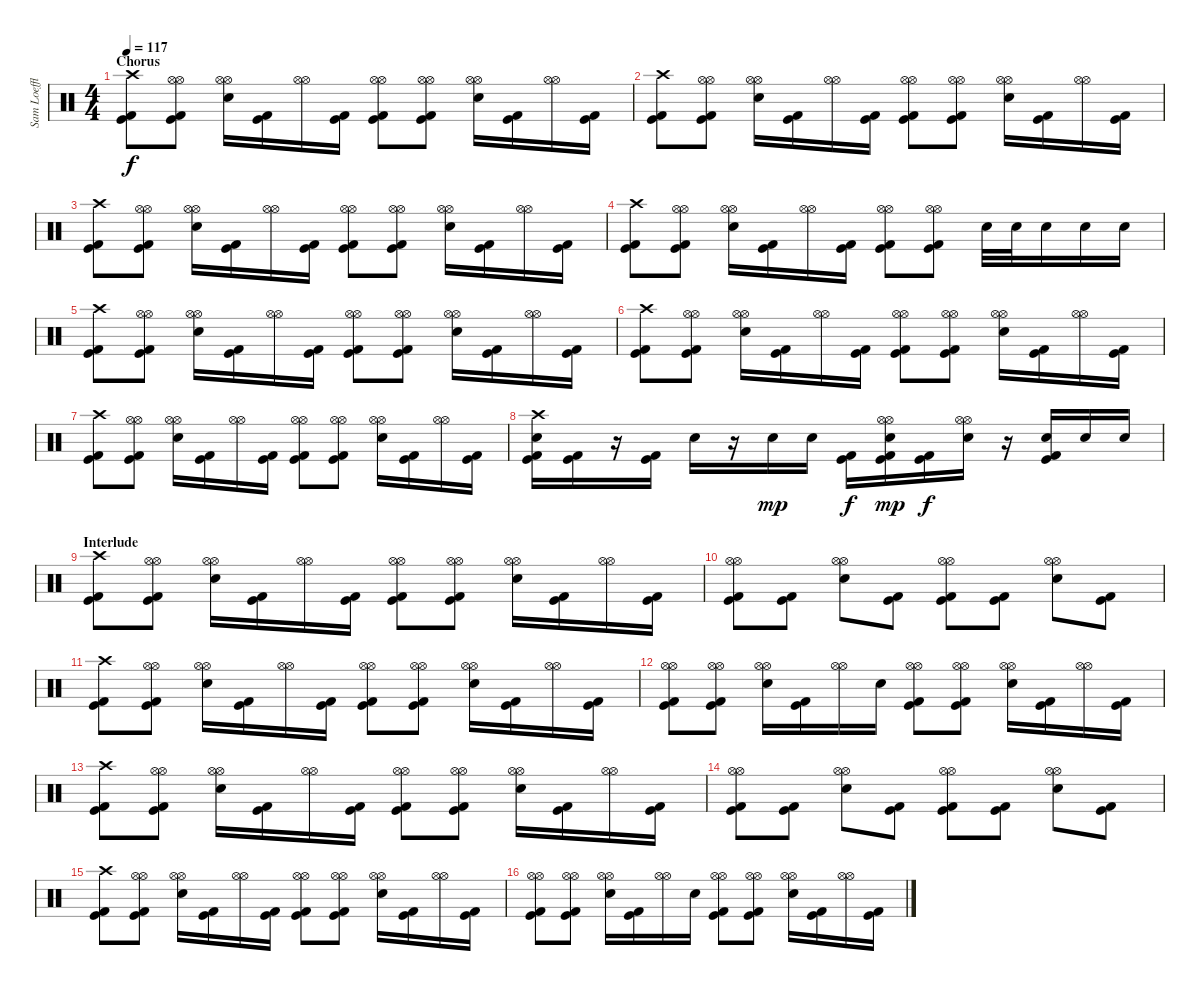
\track ("Sam Loeffler - Drums" "Sam Loeffl") {instrument percussion}
\staff {score}
\articulation defaults
\ts (4 4)
\section ("" "Chorus")
\tempo 117
\clef neutral
\ks c
("Crash high (hit)" "Kick (hit)" "Kick (hit) 2").8{dy f} ("Hi-Hat (open)" "Hi-Hat (open)" "Kick (hit)" "Kick (hit) 2").8 ("Hi-Hat (open)" "Hi-Hat (open)" "Electric Snare (hit)").16 ("Kick (hit)" "Kick (hit) 2").16 ("Hi-Hat (open)" "Hi-Hat (open)").16 ("Kick (hit)" "Kick (hit) 2").16 ("Hi-Hat (open)" "Hi-Hat (open)" "Kick (hit)" "Kick (hit) 2").8 ("Hi-Hat (open)" "Hi-Hat (open)" "Kick (hit)" "Kick (hit) 2").8 ("Hi-Hat (open)" "Hi-Hat (open)" "Electric Snare (hit)").16 ("Kick (hit)" "Kick (hit) 2").16 ("Hi-Hat (open)" "Hi-Hat (open)").16 ("Kick (hit)" "Kick (hit) 2").16 |
("Crash high (hit)" "Kick (hit)" "Kick (hit) 2").8 ("Hi-Hat (open)" "Hi-Hat (open)" "Kick (hit)" "Kick (hit) 2").8 ("Hi-Hat (open)" "Hi-Hat (open)" "Electric Snare (hit)").16 ("Kick (hit)" "Kick (hit) 2").16 ("Hi-Hat (open)" "Hi-Hat (open)").16 ("Kick (hit)" "Kick (hit) 2").16 ("Hi-Hat (open)" "Hi-Hat (open)" "Kick (hit)" "Kick (hit) 2").8 ("Hi-Hat (open)" "Hi-Hat (open)" "Kick (hit)" "Kick (hit) 2").8 ("Hi-Hat (open)" "Hi-Hat (open)" "Electric Snare (hit)").16 ("Kick (hit)" "Kick (hit) 2").16 ("Hi-Hat (open)" "Hi-Hat (open)").16 ("Kick (hit)" "Kick (hit) 2").16 |
("Crash high (hit)" "Kick (hit)" "Kick (hit) 2").8 ("Hi-Hat (open)" "Hi-Hat (open)" "Kick (hit)" "Kick (hit) 2").8 ("Hi-Hat (open)" "Hi-Hat (open)" "Electric Snare (hit)").16 ("Kick (hit)" "Kick (hit) 2").16 ("Hi-Hat (open)" "Hi-Hat (open)").16 ("Kick (hit)" "Kick (hit) 2").16 ("Hi-Hat (open)" "Hi-Hat (open)" "Kick (hit)" "Kick (hit) 2").8 ("Hi-Hat (open)" "Hi-Hat (open)" "Kick (hit)" "Kick (hit) 2").8 ("Hi-Hat (open)" "Hi-Hat (open)" "Electric Snare (hit)").16 ("Kick (hit)" "Kick (hit) 2").16 ("Hi-Hat (open)" "Hi-Hat (open)").16 ("Kick (hit)" "Kick (hit) 2").16 |
("Crash high (hit)" "Kick (hit)" "Kick (hit) 2").8 ("Hi-Hat (open)" "Hi-Hat (open)" "Kick (hit)" "Kick (hit) 2").8 ("Hi-Hat (open)" "Hi-Hat (open)" "Electric Snare (hit)").16 ("Kick (hit)" "Kick (hit) 2").16 ("Hi-Hat (open)" "Hi-Hat (open)").16 ("Kick (hit)" "Kick (hit) 2").16 ("Hi-Hat (open)" "Hi-Hat (open)" "Kick (hit)" "Kick (hit) 2").8 ("Hi-Hat (open)" "Hi-Hat (open)" "Kick (hit)" "Kick (hit) 2").8 "Electric Snare (hit)".32 "Electric Snare (hit)".32 "Electric Snare (hit)".16 "Electric Snare (hit)".16 "Electric Snare (hit)".16 |
("Crash high (hit)" "Kick (hit)" "Kick (hit) 2").8 ("Hi-Hat (open)" "Hi-Hat (open)" "Kick (hit)" "Kick (hit) 2").8 ("Hi-Hat (open)" "Hi-Hat (open)" "Electric Snare (hit)").16 ("Kick (hit)" "Kick (hit) 2").16 ("Hi-Hat (open)" "Hi-Hat (open)").16 ("Kick (hit)" "Kick (hit) 2").16 ("Hi-Hat (open)" "Hi-Hat (open)" "Kick (hit)" "Kick (hit) 2").8 ("Hi-Hat (open)" "Hi-Hat (open)" "Kick (hit)" "Kick (hit) 2").8 ("Hi-Hat (open)" "Hi-Hat (open)" "Electric Snare (hit)").16 ("Kick (hit)" "Kick (hit) 2").16 ("Hi-Hat (open)" "Hi-Hat (open)").16 ("Kick (hit)" "Kick (hit) 2").16 |
("Crash high (hit)" "Kick (hit)" "Kick (hit) 2").8 ("Hi-Hat (open)" "Hi-Hat (open)" "Kick (hit)" "Kick (hit) 2").8 ("Hi-Hat (open)" "Hi-Hat (open)" "Electric Snare (hit)").16 ("Kick (hit)" "Kick (hit) 2").16 ("Hi-Hat (open)" "Hi-Hat (open)").16 ("Kick (hit)" "Kick (hit) 2").16 ("Hi-Hat (open)" "Hi-Hat (open)" "Kick (hit)" "Kick (hit) 2").8 ("Hi-Hat (open)" "Hi-Hat (open)" "Kick (hit)" "Kick (hit) 2").8 ("Hi-Hat (open)" "Hi-Hat (open)" "Electric Snare (hit)").16 ("Kick (hit)" "Kick (hit) 2").16 ("Hi-Hat (open)" "Hi-Hat (open)").16 ("Kick (hit)" "Kick (hit) 2").16 |
("Crash high (hit)" "Kick (hit)" "Kick (hit) 2").8 ("Hi-Hat (open)" "Hi-Hat (open)" "Kick (hit)" "Kick (hit) 2").8 ("Hi-Hat (open)" "Hi-Hat (open)" "Electric Snare (hit)").16 ("Kick (hit)" "Kick (hit) 2").16 ("Hi-Hat (open)" "Hi-Hat (open)").16 ("Kick (hit)" "Kick (hit) 2").16 ("Hi-Hat (open)" "Hi-Hat (open)" "Kick (hit)" "Kick (hit) 2").8 ("Hi-Hat (open)" "Hi-Hat (open)" "Kick (hit)" "Kick (hit) 2").8 ("Hi-Hat (open)" "Hi-Hat (open)" "Electric Snare (hit)").16 ("Kick (hit)" "Kick (hit) 2").16 ("Hi-Hat (open)" "Hi-Hat (open)").16 ("Kick (hit)" "Kick (hit) 2").16 |
("Crash high (hit)" "Electric Snare (hit)" "Kick (hit)" "Kick (hit) 2").16 ("Kick (hit)" "Kick (hit) 2").16 r.16 ("Kick (hit)" "Kick (hit) 2").16 "Electric Snare (hit)".16 r.16 "Electric Snare (hit)".16{dy mp} "Electric Snare (hit)".16 ("Kick (hit)" "Kick (hit) 2").16{dy f} ("Hi-Hat (open)" "Hi-Hat (open)" "Electric Snare (hit)" "Kick (hit)" "Kick (hit) 2").16{dy mp} ("Kick (hit)" "Kick (hit) 2").16{dy f} ("Hi-Hat (open)" "Hi-Hat (open)" "Electric Snare (hit)").16 r.16 ("Electric Snare (hit)" "Kick (hit)" "Kick (hit) 2").16 "Electric Snare (hit)".16 "Electric Snare (hit)".16 |
\section ("" "Interlude")
("Crash high (hit)" "Kick (hit)" "Kick (hit) 2").8 ("Hi-Hat (open)" "Hi-Hat (open)" "Kick (hit)" "Kick (hit) 2").8 ("Hi-Hat (open)" "Hi-Hat (open)" "Electric Snare (hit)").16 ("Kick (hit)" "Kick (hit) 2").16 ("Hi-Hat (open)" "Hi-Hat (open)").16 ("Kick (hit)" "Kick (hit) 2").16 ("Hi-Hat (open)" "Hi-Hat (open)" "Kick (hit)" "Kick (hit) 2").8 ("Hi-Hat (open)" "Hi-Hat (open)" "Kick (hit)" "Kick (hit) 2").8 ("Hi-Hat (open)" "Hi-Hat (open)" "Electric Snare (hit)").16 ("Kick (hit)" "Kick (hit) 2").16 ("Hi-Hat (open)" "Hi-Hat (open)").16 ("Kick (hit)" "Kick (hit) 2").16 |
("Hi-Hat (open)" "Hi-Hat (open)" "Kick (hit)" "Kick (hit) 2").8 ("Kick (hit)" "Kick (hit) 2").8 ("Hi-Hat (open)" "Hi-Hat (open)" "Electric Snare (hit)").8 ("Kick (hit)" "Kick (hit) 2").8 ("Hi-Hat (open)" "Hi-Hat (open)" "Kick (hit)" "Kick (hit) 2").8 ("Kick (hit)" "Kick (hit) 2").8 ("Hi-Hat (open)" "Hi-Hat (open)" "Electric Snare (hit)").8 ("Kick (hit)" "Kick (hit) 2").8 |
("Crash high (hit)" "Kick (hit)" "Kick (hit) 2").8 ("Hi-Hat (open)" "Hi-Hat (open)" "Kick (hit)" "Kick (hit) 2").8 ("Hi-Hat (open)" "Hi-Hat (open)" "Electric Snare (hit)").16 ("Kick (hit)" "Kick (hit) 2").16 ("Hi-Hat (open)" "Hi-Hat (open)").16 ("Kick (hit)" "Kick (hit) 2").16 ("Hi-Hat (open)" "Hi-Hat (open)" "Kick (hit)" "Kick (hit) 2").8 ("Hi-Hat (open)" "Hi-Hat (open)" "Kick (hit)" "Kick (hit) 2").8 ("Hi-Hat (open)" "Hi-Hat (open)" "Electric Snare (hit)").16 ("Kick (hit)" "Kick (hit) 2").16 ("Hi-Hat (open)" "Hi-Hat (open)").16 ("Kick (hit)" "Kick (hit) 2").16 |
("Hi-Hat (open)" "Hi-Hat (open)" "Kick (hit)" "Kick (hit) 2").8 ("Hi-Hat (open)" "Hi-Hat (open)" "Kick (hit)" "Kick (hit) 2").8 ("Hi-Hat (open)" "Hi-Hat (open)" "Electric Snare (hit)").16 ("Kick (hit)" "Kick (hit) 2").16 ("Hi-Hat (open)" "Hi-Hat (open)").16 "Electric Snare (hit)".16 ("Hi-Hat (open)" "Hi-Hat (open)" "Kick (hit)" "Kick (hit) 2").8 ("Hi-Hat (open)" "Hi-Hat (open)" "Kick (hit)" "Kick (hit) 2").8 ("Hi-Hat (open)" "Hi-Hat (open)" "Electric Snare (hit)").16 ("Kick (hit)" "Kick (hit) 2").16 ("Hi-Hat (open)" "Hi-Hat (open)").16 ("Kick (hit)" "Kick (hit) 2").16 |
("Crash high (hit)" "Kick (hit)" "Kick (hit) 2").8 ("Hi-Hat (open)" "Hi-Hat (open)" "Kick (hit)" "Kick (hit) 2").8 ("Hi-Hat (open)" "Hi-Hat (open)" "Electric Snare (hit)").16 ("Kick (hit)" "Kick (hit) 2").16 ("Hi-Hat (open)" "Hi-Hat (open)").16 ("Kick (hit)" "Kick (hit) 2").16 ("Hi-Hat (open)" "Hi-Hat (open)" "Kick (hit)" "Kick (hit) 2").8 ("Hi-Hat (open)" "Hi-Hat (open)" "Kick (hit)" "Kick (hit) 2").8 ("Hi-Hat (open)" "Hi-Hat (open)" "Electric Snare (hit)").16 ("Kick (hit)" "Kick (hit) 2").16 ("Hi-Hat (open)" "Hi-Hat (open)").16 ("Kick (hit)" "Kick (hit) 2").16 |
("Hi-Hat (open)" "Hi-Hat (open)" "Kick (hit)" "Kick (hit) 2").8 ("Kick (hit)" "Kick (hit) 2").8 ("Hi-Hat (open)" "Hi-Hat (open)" "Electric Snare (hit)").8 ("Kick (hit)" "Kick (hit) 2").8 ("Hi-Hat (open)" "Hi-Hat (open)" "Kick (hit)" "Kick (hit) 2").8 ("Kick (hit)" "Kick (hit) 2").8 ("Hi-Hat (open)" "Hi-Hat (open)" "Electric Snare (hit)").8 ("Kick (hit)" "Kick (hit) 2").8 |
("Crash high (hit)" "Kick (hit)" "Kick (hit) 2").8 ("Hi-Hat (open)" "Hi-Hat (open)" "Kick (hit)" "Kick (hit) 2").8 ("Hi-Hat (open)" "Hi-Hat (open)" "Electric Snare (hit)").16 ("Kick (hit)" "Kick (hit) 2").16 ("Hi-Hat (open)" "Hi-Hat (open)").16 ("Kick (hit)" "Kick (hit) 2").16 ("Hi-Hat (open)" "Hi-Hat (open)" "Kick (hit)" "Kick (hit) 2").8 ("Hi-Hat (open)" "Hi-Hat (open)" "Kick (hit)" "Kick (hit) 2").8 ("Hi-Hat (open)" "Hi-Hat (open)" "Electric Snare (hit)").16 ("Kick (hit)" "Kick (hit) 2").16 ("Hi-Hat (open)" "Hi-Hat (open)").16 ("Kick (hit)" "Kick (hit) 2").16 |
("Hi-Hat (open)" "Hi-Hat (open)" "Kick (hit)" "Kick (hit) 2").8 ("Hi-Hat (open)" "Hi-Hat (open)" "Kick (hit)" "Kick (hit) 2").8 ("Hi-Hat (open)" "Hi-Hat (open)" "Electric Snare (hit)").16 ("Kick (hit)" "Kick (hit) 2").16 ("Hi-Hat (open)" "Hi-Hat (open)").16 "Electric Snare (hit)".16 ("Hi-Hat (open)" "Hi-Hat (open)" "Kick (hit)" "Kick (hit) 2").8 ("Hi-Hat (open)" "Hi-Hat (open)" "Kick (hit)" "Kick (hit) 2").8 ("Hi-Hat (open)" "Hi-Hat (open)" "Electric Snare (hit)").16 ("Kick (hit)" "Kick (hit) 2").16 ("Hi-Hat (open)" "Hi-Hat (open)").16 ("Kick (hit)" "Kick (hit) 2").16
